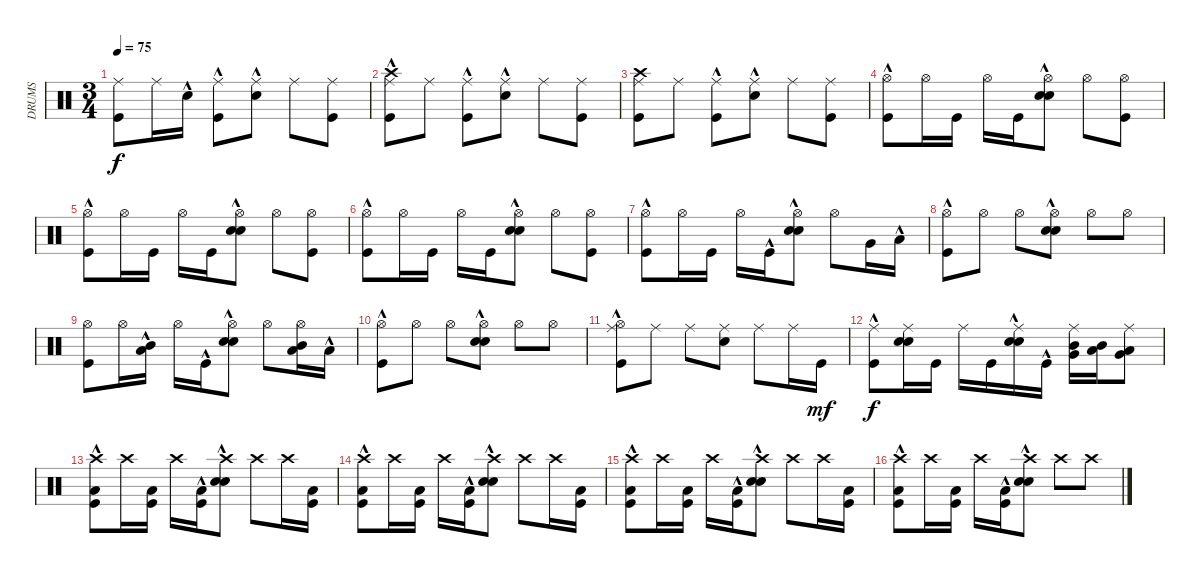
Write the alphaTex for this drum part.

\track ("DRUMS" "DRUMS") {instrument percussion}
\staff {score}
\articulation defaults
\ts (3 4)
\tempo 75
\clef neutral
\ks c
("Kick (hit)" "Ride (middle)").8{dy f} "Ride (middle)".16 "Electric Snare (hit)"{hac}.16 ("Kick (hit)"{hac} "Ride (middle)").8 ("Electric Snare (hit)"{hac} "Ride (middle)").8 "Ride (middle)".8 ("Kick (hit)" "Ride (middle)").8 |
("Kick (hit)" "Ride (middle)" "Crash high (hit)"{hac}).8 "Ride (middle)".8 ("Kick (hit)"{hac} "Ride (middle)").8 ("Electric Snare (hit)"{hac} "Ride (middle)").8 "Ride (middle)".8 ("Kick (hit)" "Ride (middle)").8 |
("Kick (hit)" "Ride (middle)" "Crash high (hit)").8 "Ride (middle)".8 ("Kick (hit)"{hac} "Ride (middle)").8 ("Electric Snare (hit)"{hac} "Ride (middle)").8 "Ride (middle)".8 ("Kick (hit)" "Ride (middle)").8 |
("Kick (hit)"{hac} "Hi-Hat (open)").8 "Hi-Hat (open)".16 "Kick (hit)".16 "Hi-Hat (open)".16 "Kick (hit)".16 ("Snare (hit) 2"{hac} "Hi-Hat (open)" "Snare (hit) 2"{hac}).8 "Hi-Hat (open)".8 ("Kick (hit)" "Hi-Hat (open)").8 |
("Kick (hit)"{hac} "Hi-Hat (open)").8 "Hi-Hat (open)".16 "Kick (hit)".16 "Hi-Hat (open)".16 "Kick (hit)".16 ("Snare (hit) 2"{hac} "Hi-Hat (open)" "Snare (hit) 2"{hac}).8 "Hi-Hat (open)".8 ("Kick (hit)" "Hi-Hat (open)").8 |
("Kick (hit)"{hac} "Hi-Hat (open)").8 "Hi-Hat (open)".16 "Kick (hit)".16 "Hi-Hat (open)".16 "Kick (hit)".16 ("Snare (hit) 2"{hac} "Hi-Hat (open)" "Snare (hit) 2"{hac}).8 "Hi-Hat (open)".8 ("Kick (hit)" "Hi-Hat (open)").8 |
("Kick (hit)"{hac} "Hi-Hat (open)").8 "Hi-Hat (open)".16 "Kick (hit)".16 "Hi-Hat (open)".16 "Kick (hit)"{hac}.16 ("Snare (hit) 2"{hac} "Hi-Hat (open)" "Snare (hit) 2"{hac}).8 "Hi-Hat (open)".8 "Very Low Tom (hit)".16 "Low Floor Tom (hit)"{hac}.16 |
("Kick (hit)"{hac} "Hi-Hat (open)").8 "Hi-Hat (open)".8 "Hi-Hat (open)".8 ("Snare (hit) 2"{hac} "Hi-Hat (open)" "Snare (hit) 2"{hac}).8 "Hi-Hat (open)".8 "Hi-Hat (open)".8 |
("Kick (hit)" "Hi-Hat (open)").8 "Hi-Hat (open)".16 ("Low Floor Tom (hit)"{hac} "Mid Tom (hit)"{hac}).16 "Hi-Hat (open)".16 "Kick (hit)"{hac}.16 ("Snare (hit) 2"{hac} "Hi-Hat (open)" "Snare (hit) 2"{hac}).8 "Hi-Hat (open)".8 ("Low Floor Tom (hit)" "Mid Tom (hit)" "Hi-Hat (open)").16 "Low Floor Tom (hit)"{hac}.16 |
("Kick (hit)"{hac} "Hi-Hat (open)").8 "Hi-Hat (open)".8 "Hi-Hat (open)".8 ("Snare (hit) 2"{hac} "Hi-Hat (open)" "Snare (hit) 2"{hac}).8 "Hi-Hat (open)".8 "Hi-Hat (open)".8 |
("Kick (hit)" "Ride (middle)" "Hi-Hat (open)"{hac}).8 "Ride (middle)".8 "Ride (middle)".8 ("Snare (hit) 2" "Ride (middle)").8 "Ride (middle)".8 "Ride (middle)".16 "Kick (hit)".16{dy mf} |
("Kick (hit)"{hac} "Ride (middle)").8{dy f} ("Snare (hit) 2" "Ride (middle)" "Snare (hit) 2").16 "Kick (hit)".16 "Ride (middle)".16 "Kick (hit)".16 ("Snare (hit) 2"{hac} "Ride (middle)" "Snare (hit) 2"{hac}).16 "Kick (hit)"{hac}.16 ("Very Low Tom (hit)" "Mid Tom (hit)" "Ride (middle)").16 ("Low Floor Tom (hit)" "Mid Tom (hit)").16 ("Low Floor Tom (hit)" "Very Low Tom (hit)" "Ride (middle)").8 |
("Kick (hit)"{hac} "Low Floor Tom (hit)"{hac} "Crash high (hit)").8 "Crash high (hit)".16 ("Kick (hit)" "Low Floor Tom (hit)").16 "Crash high (hit)".16 ("Kick (hit)"{hac} "Low Floor Tom (hit)").16 ("Snare (hit) 2"{hac} "Snare (hit) 2"{hac} "Crash high (hit)").8 "Crash high (hit)".8 "Crash high (hit)".16 ("Kick (hit)" "Low Floor Tom (hit)").16 |
("Kick (hit)"{hac} "Low Floor Tom (hit)"{hac} "Crash high (hit)").8 "Crash high (hit)".16 ("Kick (hit)" "Low Floor Tom (hit)").16 "Crash high (hit)".16 ("Kick (hit)"{hac} "Low Floor Tom (hit)").16 ("Snare (hit) 2"{hac} "Snare (hit) 2"{hac} "Crash high (hit)").8 "Crash high (hit)".8 "Crash high (hit)".16 ("Kick (hit)" "Low Floor Tom (hit)").16 |
("Kick (hit)"{hac} "Low Floor Tom (hit)"{hac} "Crash high (hit)").8 "Crash high (hit)".16 ("Kick (hit)" "Low Floor Tom (hit)").16 "Crash high (hit)".16 ("Kick (hit)"{hac} "Low Floor Tom (hit)").16 ("Snare (hit) 2"{hac} "Snare (hit) 2"{hac} "Crash high (hit)").8 "Crash high (hit)".8 "Crash high (hit)".16 ("Kick (hit)" "Low Floor Tom (hit)").16 |
("Kick (hit)"{hac} "Low Floor Tom (hit)"{hac} "Crash high (hit)").8 "Crash high (hit)".16 ("Kick (hit)" "Low Floor Tom (hit)").16 "Crash high (hit)".16 ("Kick (hit)"{hac} "Low Floor Tom (hit)").16 ("Snare (hit) 2"{hac} "Snare (hit) 2"{hac} "Crash high (hit)").8 "Crash high (hit)".8 "Crash high (hit)".8
